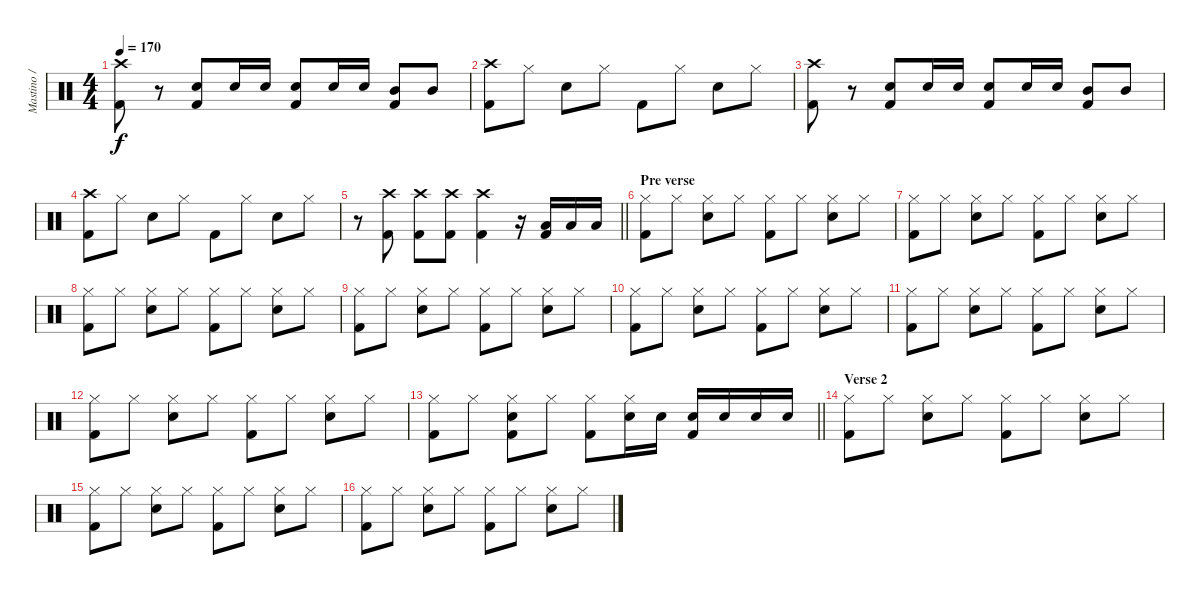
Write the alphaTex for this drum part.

\track ("Mastino / Drums" "Mastino / ") {instrument percussion}
\staff {score}
\articulation defaults
\ts (4 4)
\tempo 170
\clef neutral
\ks c
("Crash high (hit)" "Kick (hit) 2").8{dy f} r.8 ("Electric Snare (hit)" "Kick (hit) 2").8 "Electric Snare (hit)".16 "Electric Snare (hit)".16 ("Electric Snare (hit)" "Kick (hit) 2").8 "Electric Snare (hit)".16 "Electric Snare (hit)".16 ("Mid Tom (hit)" "Kick (hit) 2").8 "Mid Tom (hit)".8 |
("Crash high (hit)" "Kick (hit) 2").8 "Hi-Hat (closed)".8 "Electric Snare (hit)".8 "Hi-Hat (closed)".8 "Kick (hit) 2".8 "Hi-Hat (closed)".8 "Electric Snare (hit)".8 "Hi-Hat (closed)".8 |
("Crash high (hit)" "Kick (hit) 2").8 r.8 ("Electric Snare (hit)" "Kick (hit) 2").8 "Electric Snare (hit)".16 "Electric Snare (hit)".16 ("Electric Snare (hit)" "Kick (hit) 2").8 "Electric Snare (hit)".16 "Electric Snare (hit)".16 ("Mid Tom (hit)" "Kick (hit) 2").8 "Mid Tom (hit)".8 |
("Crash high (hit)" "Kick (hit) 2").8 "Hi-Hat (closed)".8 "Electric Snare (hit)".8 "Hi-Hat (closed)".8 "Kick (hit) 2".8 "Hi-Hat (closed)".8 "Electric Snare (hit)".8 "Hi-Hat (closed)".8 |
\barLineRight lightlight
r.8 ("Crash high (hit)" "Kick (hit) 2").8 ("Crash high (hit)" "Kick (hit) 2").8 ("Crash high (hit)" "Kick (hit) 2").8 ("Crash high (hit)" "Kick (hit) 2").4 r.16 ("Low Tom (hit)" "Kick (hit) 2").16 "Low Tom (hit)".16 "Low Tom (hit)".16 |
\section ("" "Pre verse")
("Hi-Hat (closed)" "Kick (hit) 2").8 "Hi-Hat (closed)".8 ("Hi-Hat (closed)" "Electric Snare (hit)").8 "Hi-Hat (closed)".8 ("Hi-Hat (closed)" "Kick (hit) 2").8 "Hi-Hat (closed)".8 ("Hi-Hat (closed)" "Electric Snare (hit)").8 "Hi-Hat (closed)".8 |
("Hi-Hat (closed)" "Kick (hit) 2").8 "Hi-Hat (closed)".8 ("Hi-Hat (closed)" "Electric Snare (hit)").8 "Hi-Hat (closed)".8 ("Hi-Hat (closed)" "Kick (hit) 2").8 "Hi-Hat (closed)".8 ("Hi-Hat (closed)" "Electric Snare (hit)").8 "Hi-Hat (closed)".8 |
("Hi-Hat (closed)" "Kick (hit) 2").8 "Hi-Hat (closed)".8 ("Hi-Hat (closed)" "Electric Snare (hit)").8 "Hi-Hat (closed)".8 ("Hi-Hat (closed)" "Kick (hit) 2").8 "Hi-Hat (closed)".8 ("Hi-Hat (closed)" "Electric Snare (hit)").8 "Hi-Hat (closed)".8 |
("Hi-Hat (closed)" "Kick (hit) 2").8 "Hi-Hat (closed)".8 ("Hi-Hat (closed)" "Electric Snare (hit)").8 "Hi-Hat (closed)".8 ("Hi-Hat (closed)" "Kick (hit) 2").8 "Hi-Hat (closed)".8 ("Hi-Hat (closed)" "Electric Snare (hit)").8 "Hi-Hat (closed)".8 |
("Hi-Hat (closed)" "Kick (hit) 2").8 "Hi-Hat (closed)".8 ("Hi-Hat (closed)" "Electric Snare (hit)").8 "Hi-Hat (closed)".8 ("Hi-Hat (closed)" "Kick (hit) 2").8 "Hi-Hat (closed)".8 ("Hi-Hat (closed)" "Electric Snare (hit)").8 "Hi-Hat (closed)".8 |
("Hi-Hat (closed)" "Kick (hit) 2").8 "Hi-Hat (closed)".8 ("Hi-Hat (closed)" "Electric Snare (hit)").8 "Hi-Hat (closed)".8 ("Hi-Hat (closed)" "Kick (hit) 2").8 "Hi-Hat (closed)".8 ("Hi-Hat (closed)" "Electric Snare (hit)").8 "Hi-Hat (closed)".8 |
("Hi-Hat (closed)" "Kick (hit) 2").8 "Hi-Hat (closed)".8 ("Hi-Hat (closed)" "Electric Snare (hit)").8 "Hi-Hat (closed)".8 ("Hi-Hat (closed)" "Kick (hit) 2").8 "Hi-Hat (closed)".8 ("Hi-Hat (closed)" "Electric Snare (hit)").8 "Hi-Hat (closed)".8 |
\barLineRight lightlight
("Hi-Hat (closed)" "Kick (hit) 2").8 "Hi-Hat (closed)".8 ("Hi-Hat (closed)" "Electric Snare (hit)" "Kick (hit) 2").8 "Hi-Hat (closed)".8 ("Hi-Hat (closed)" "Kick (hit) 2").8 ("Hi-Hat (closed)" "Electric Snare (hit)").16 "Electric Snare (hit)".16 ("Electric Snare (hit)" "Kick (hit) 2").16 "Electric Snare (hit)".16 "Electric Snare (hit)".16 "Electric Snare (hit)".16 |
\section ("" "Verse 2")
("Hi-Hat (closed)" "Kick (hit) 2").8 "Hi-Hat (closed)".8 ("Hi-Hat (closed)" "Electric Snare (hit)").8 "Hi-Hat (closed)".8 ("Hi-Hat (closed)" "Kick (hit) 2").8 "Hi-Hat (closed)".8 ("Hi-Hat (closed)" "Electric Snare (hit)").8 "Hi-Hat (closed)".8 |
("Hi-Hat (closed)" "Kick (hit) 2").8 "Hi-Hat (closed)".8 ("Hi-Hat (closed)" "Electric Snare (hit)").8 "Hi-Hat (closed)".8 ("Hi-Hat (closed)" "Kick (hit) 2").8 "Hi-Hat (closed)".8 ("Hi-Hat (closed)" "Electric Snare (hit)").8 "Hi-Hat (closed)".8 |
("Hi-Hat (closed)" "Kick (hit) 2").8 "Hi-Hat (closed)".8 ("Hi-Hat (closed)" "Electric Snare (hit)").8 "Hi-Hat (closed)".8 ("Hi-Hat (closed)" "Kick (hit) 2").8 "Hi-Hat (closed)".8 ("Hi-Hat (closed)" "Electric Snare (hit)").8 "Hi-Hat (closed)".8
